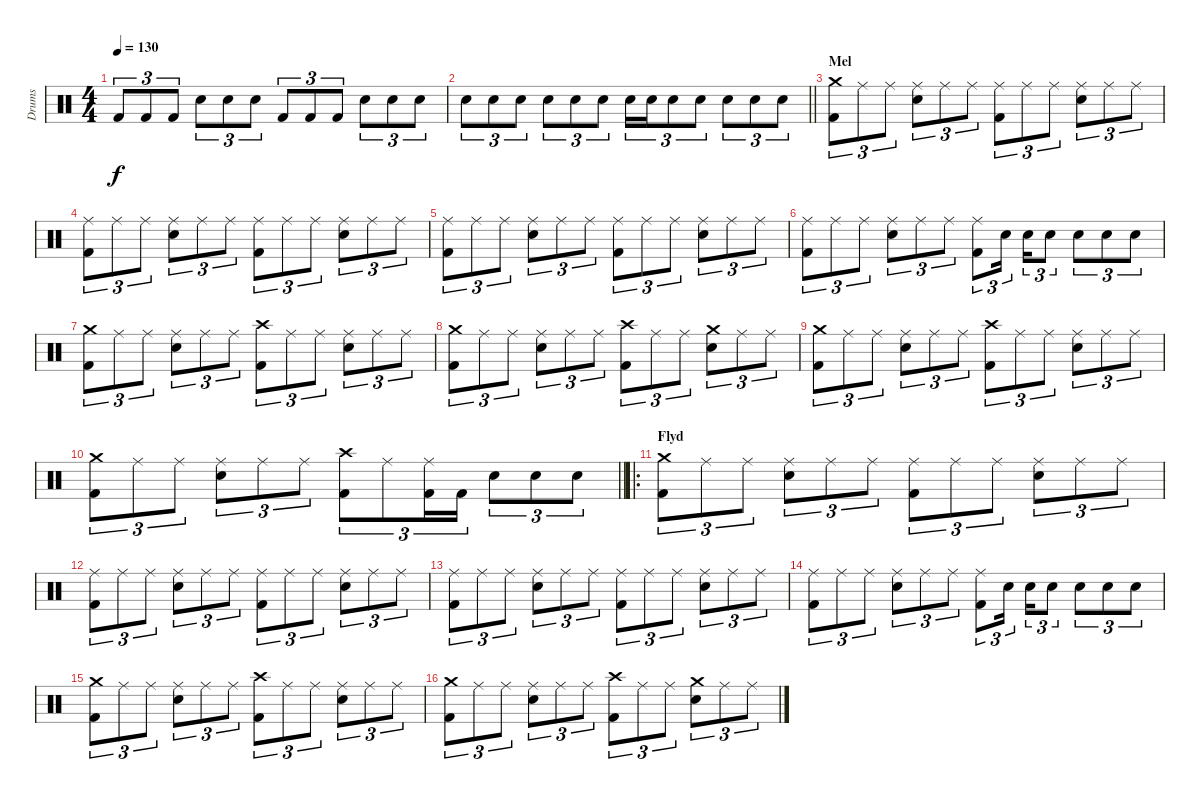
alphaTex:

\track ("Drums" "Drums") {instrument percussion}
\staff {score}
\articulation defaults
\ts (4 4)
\tempo 130
\clef neutral
\ks c "Kick (hit) 2".8{tu (3 2) dy f} "Kick (hit) 2".8{tu (3 2)} "Kick (hit) 2".8{tu (3 2)} "Snare (hit) 2".8{tu (3 2)} "Snare (hit) 2".8{tu (3 2)} "Snare (hit) 2".8{tu (3 2)} "Kick (hit) 2".8{tu (3 2)} "Kick (hit) 2".8{tu (3 2)} "Kick (hit) 2".8{tu (3 2)} "Snare (hit) 2".8{tu (3 2)} "Snare (hit) 2".8{tu (3 2)} "Snare (hit) 2".8{tu (3 2)}
|
\barLineRight lightlight "Snare (hit) 2".8{tu (3 2)} "Snare (hit) 2".8{tu (3 2)} "Snare (hit) 2".8{tu (3 2)} "Snare (hit) 2".8{tu (3 2)} "Snare (hit) 2".8{tu (3 2)} "Snare (hit) 2".8{tu (3 2)} "Snare (hit) 2".16{tu (3 2)} "Snare (hit) 2".16{tu (3 2)} "Snare (hit) 2".8{tu (3 2)} "Snare (hit) 2".8{tu (3 2)} "Snare (hit) 2".8{tu (3 2)} "Snare (hit) 2".8{tu (3 2)} "Snare (hit) 2".8{tu (3 2)}
|
\section ("" "Mel")
("Crash medium (hit)" "Kick (hit) 2").8{tu (3 2)} "Ride (middle)".8{tu (3 2)} "Ride (middle)".8{tu (3 2)} ("Ride (middle)" "Snare (hit) 2").8{tu (3 2)} "Ride (middle)".8{tu (3 2)} "Ride (middle)".8{tu (3 2)} ("Ride (middle)" "Kick (hit) 2").8{tu (3 2)} "Ride (middle)".8{tu (3 2)} "Ride (middle)".8{tu (3 2)} ("Ride (middle)" "Snare (hit) 2").8{tu (3 2)} "Ride (middle)".8{tu (3 2)} "Ride (middle)".8{tu (3 2)} |
("Ride (middle)" "Kick (hit) 2").8{tu (3 2)} "Ride (middle)".8{tu (3 2)} "Ride (middle)".8{tu (3 2)} ("Ride (middle)" "Snare (hit) 2").8{tu (3 2)} "Ride (middle)".8{tu (3 2)} "Ride (middle)".8{tu (3 2)} ("Ride (middle)" "Kick (hit) 2").8{tu (3 2)} "Ride (middle)".8{tu (3 2)} "Ride (middle)".8{tu (3 2)} ("Ride (middle)" "Snare (hit) 2").8{tu (3 2)} "Ride (middle)".8{tu (3 2)} "Ride (middle)".8{tu (3 2)} |
("Ride (middle)" "Kick (hit) 2").8{tu (3 2)} "Ride (middle)".8{tu (3 2)} "Ride (middle)".8{tu (3 2)} ("Ride (middle)" "Snare (hit) 2").8{tu (3 2)} "Ride (middle)".8{tu (3 2)} "Ride (middle)".8{tu (3 2)} ("Ride (middle)" "Kick (hit) 2").8{tu (3 2)} "Ride (middle)".8{tu (3 2)} "Ride (middle)".8{tu (3 2)} ("Ride (middle)" "Snare (hit) 2").8{tu (3 2)} "Ride (middle)".8{tu (3 2)} "Ride (middle)".8{tu (3 2)} |
("Ride (middle)" "Kick (hit) 2").8{tu (3 2)} "Ride (middle)".8{tu (3 2)} "Ride (middle)".8{tu (3 2)} ("Ride (middle)" "Snare (hit) 2").8{tu (3 2)} "Ride (middle)".8{tu (3 2)} "Ride (middle)".8{tu (3 2)} ("Ride (middle)" "Kick (hit) 2").8{tu (3 2)} "Snare (hit) 2".16{tu (3 2) beam splitsecondary} "Snare (hit) 2".16{tu (3 2)} "Snare (hit) 2".8{tu (3 2)} "Snare (hit) 2".8{tu (3 2)} "Snare (hit) 2".8{tu (3 2)} "Snare (hit) 2".8{tu (3 2)} |
("Crash medium (hit)" "Kick (hit) 2").8{tu (3 2)} "Ride (middle)".8{tu (3 2)} "Ride (middle)".8{tu (3 2)} ("Ride (middle)" "Snare (hit) 2").8{tu (3 2)} "Ride (middle)".8{tu (3 2)} "Ride (middle)".8{tu (3 2)} ("Crash high (hit)" "Kick (hit) 2").8{tu (3 2)} "Ride (middle)".8{tu (3 2)} "Ride (middle)".8{tu (3 2)} ("Ride (middle)" "Snare (hit) 2").8{tu (3 2)} "Ride (middle)".8{tu (3 2)} "Ride (middle)".8{tu (3 2)} |
("Crash medium (hit)" "Kick (hit) 2").8{tu (3 2)} "Ride (middle)".8{tu (3 2)} "Ride (middle)".8{tu (3 2)} ("Ride (middle)" "Snare (hit) 2").8{tu (3 2)} "Ride (middle)".8{tu (3 2)} "Ride (middle)".8{tu (3 2)} ("Crash high (hit)" "Kick (hit) 2").8{tu (3 2)} "Ride (middle)".8{tu (3 2)} "Ride (middle)".8{tu (3 2)} ("Crash medium (hit)" "Snare (hit) 2").8{tu (3 2)} "Ride (middle)".8{tu (3 2)} "Ride (middle)".8{tu (3 2)} |
("Crash medium (hit)" "Kick (hit) 2").8{tu (3 2)} "Ride (middle)".8{tu (3 2)} "Ride (middle)".8{tu (3 2)} ("Ride (middle)" "Snare (hit) 2").8{tu (3 2)} "Ride (middle)".8{tu (3 2)} "Ride (middle)".8{tu (3 2)} ("Crash high (hit)" "Kick (hit) 2").8{tu (3 2)} "Ride (middle)".8{tu (3 2)} "Ride (middle)".8{tu (3 2)} ("Ride (middle)" "Snare (hit) 2").8{tu (3 2)} "Ride (middle)".8{tu (3 2)} "Ride (middle)".8{tu (3 2)} |
\barLineRight lightlight
("Crash medium (hit)" "Kick (hit) 2").8{tu (3 2)} "Ride (middle)".8{tu (3 2)} "Ride (middle)".8{tu (3 2)} ("Ride (middle)" "Snare (hit) 2").8{tu (3 2)} "Ride (middle)".8{tu (3 2)} "Ride (middle)".8{tu (3 2)} ("Crash high (hit)" "Kick (hit) 2").8{tu (3 2)} "Ride (middle)".8{tu (3 2)} ("Ride (middle)" "Kick (hit) 2").16{tu (3 2)} "Kick (hit) 2".16{tu (3 2)} "Snare (hit) 2".8{tu (3 2)} "Snare (hit) 2".8{tu (3 2)} "Snare (hit) 2".8{tu (3 2)} |
\ro
\section ("" "Flyd")
("Crash medium (hit)" "Kick (hit) 2").8{tu (3 2)} "Ride (middle)".8{tu (3 2)} "Ride (middle)".8{tu (3 2)} ("Ride (middle)" "Snare (hit) 2").8{tu (3 2)} "Ride (middle)".8{tu (3 2)} "Ride (middle)".8{tu (3 2)} ("Ride (middle)" "Kick (hit) 2").8{tu (3 2)} "Ride (middle)".8{tu (3 2)} "Ride (middle)".8{tu (3 2)} ("Ride (middle)" "Snare (hit) 2").8{tu (3 2)} "Ride (middle)".8{tu (3 2)} "Ride (middle)".8{tu (3 2)} |
("Ride (middle)" "Kick (hit) 2").8{tu (3 2)} "Ride (middle)".8{tu (3 2)} "Ride (middle)".8{tu (3 2)} ("Ride (middle)" "Snare (hit) 2").8{tu (3 2)} "Ride (middle)".8{tu (3 2)} "Ride (middle)".8{tu (3 2)} ("Ride (middle)" "Kick (hit) 2").8{tu (3 2)} "Ride (middle)".8{tu (3 2)} "Ride (middle)".8{tu (3 2)} ("Ride (middle)" "Snare (hit) 2").8{tu (3 2)} "Ride (middle)".8{tu (3 2)} "Ride (middle)".8{tu (3 2)} |
("Ride (middle)" "Kick (hit) 2").8{tu (3 2)} "Ride (middle)".8{tu (3 2)} "Ride (middle)".8{tu (3 2)} ("Ride (middle)" "Snare (hit) 2").8{tu (3 2)} "Ride (middle)".8{tu (3 2)} "Ride (middle)".8{tu (3 2)} ("Ride (middle)" "Kick (hit) 2").8{tu (3 2)} "Ride (middle)".8{tu (3 2)} "Ride (middle)".8{tu (3 2)} ("Ride (middle)" "Snare (hit) 2").8{tu (3 2)} "Ride (middle)".8{tu (3 2)} "Ride (middle)".8{tu (3 2)} |
("Ride (middle)" "Kick (hit) 2").8{tu (3 2)} "Ride (middle)".8{tu (3 2)} "Ride (middle)".8{tu (3 2)} ("Ride (middle)" "Snare (hit) 2").8{tu (3 2)} "Ride (middle)".8{tu (3 2)} "Ride (middle)".8{tu (3 2)} ("Ride (middle)" "Kick (hit) 2").8{tu (3 2)} "Snare (hit) 2".16{tu (3 2) beam splitsecondary} "Snare (hit) 2".16{tu (3 2)} "Snare (hit) 2".8{tu (3 2)} "Snare (hit) 2".8{tu (3 2)} "Snare (hit) 2".8{tu (3 2)} "Snare (hit) 2".8{tu (3 2)} |
("Crash medium (hit)" "Kick (hit) 2").8{tu (3 2)} "Ride (middle)".8{tu (3 2)} "Ride (middle)".8{tu (3 2)} ("Ride (middle)" "Snare (hit) 2").8{tu (3 2)} "Ride (middle)".8{tu (3 2)} "Ride (middle)".8{tu (3 2)} ("Crash high (hit)" "Kick (hit) 2").8{tu (3 2)} "Ride (middle)".8{tu (3 2)} "Ride (middle)".8{tu (3 2)} ("Ride (middle)" "Snare (hit) 2").8{tu (3 2)} "Ride (middle)".8{tu (3 2)} "Ride (middle)".8{tu (3 2)} |
("Crash medium (hit)" "Kick (hit) 2").8{tu (3 2)} "Ride (middle)".8{tu (3 2)} "Ride (middle)".8{tu (3 2)} ("Ride (middle)" "Snare (hit) 2").8{tu (3 2)} "Ride (middle)".8{tu (3 2)} "Ride (middle)".8{tu (3 2)} ("Crash high (hit)" "Kick (hit) 2").8{tu (3 2)} "Ride (middle)".8{tu (3 2)} "Ride (middle)".8{tu (3 2)} ("Crash medium (hit)" "Snare (hit) 2").8{tu (3 2)} "Ride (middle)".8{tu (3 2)} "Ride (middle)".8{tu (3 2)}
